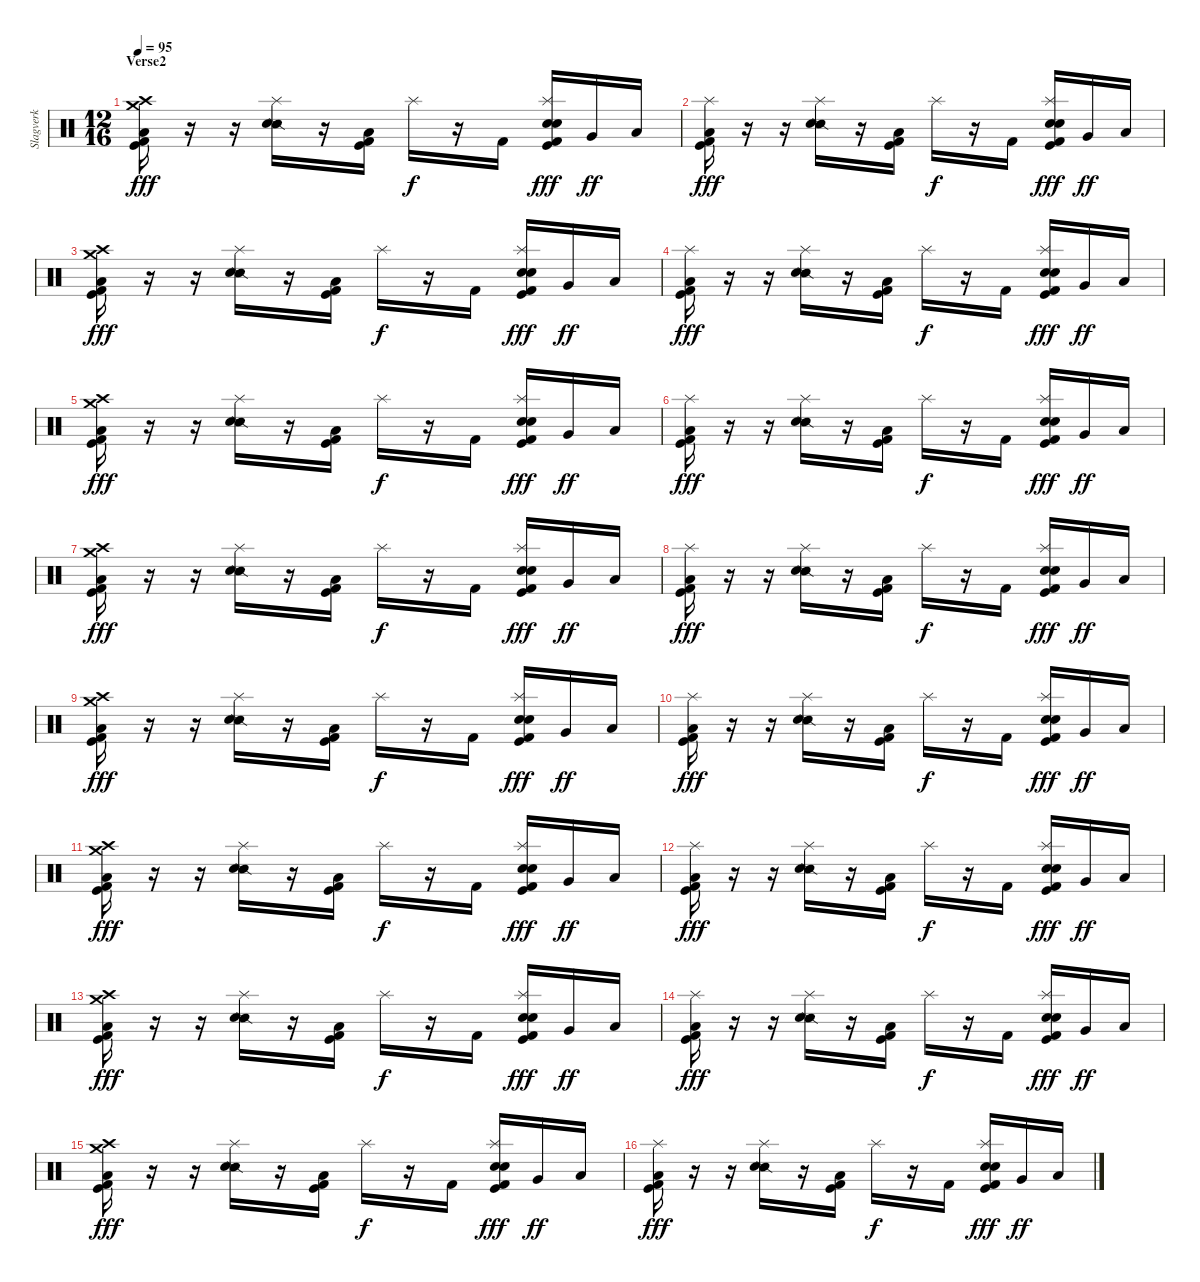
\track ("Slagverk" "Slagverk") {instrument percussion}
\staff {score}
\articulation defaults
\ts (12 16)
\section ("" "Verse2")
\tempo 95
\clef neutral
\ks c
("Crash high (hit)" "Crash medium (hit)" "Low Floor Tom (hit)" "Kick (hit)" "Kick (hit) 2").16{dy fff} r.16 r.16 ("Splash (hit)" "Snare (side stick) 2" "Snare (hit) 2").16 r.16 ("Low Floor Tom (hit)" "Kick (hit)" "Kick (hit) 2").16 "Splash (hit)".16{dy f} r.16 "Kick (hit) 2".16 ("Splash (hit)" "Snare (hit) 2" "Electric Snare (hit)" "Kick (hit)" "Kick (hit) 2").16{dy fff} "Very Low Tom (hit)".16{dy ff} "Low Floor Tom (hit)".16 |
("Splash (hit)" "Low Floor Tom (hit)" "Kick (hit)" "Kick (hit) 2").16{dy fff} r.16 r.16 ("Splash (hit)" "Snare (side stick) 2" "Snare (hit) 2").16 r.16 ("Low Floor Tom (hit)" "Kick (hit)" "Kick (hit) 2").16 "Splash (hit)".16{dy f} r.16 "Kick (hit) 2".16 ("Splash (hit)" "Snare (hit) 2" "Electric Snare (hit)" "Kick (hit)" "Kick (hit) 2").16{dy fff} "Very Low Tom (hit)".16{dy ff} "Low Floor Tom (hit)".16 |
("Crash high (hit)" "Crash medium (hit)" "Low Floor Tom (hit)" "Kick (hit)" "Kick (hit) 2").16{dy fff} r.16 r.16 ("Splash (hit)" "Snare (side stick) 2" "Snare (hit) 2").16 r.16 ("Low Floor Tom (hit)" "Kick (hit)" "Kick (hit) 2").16 "Splash (hit)".16{dy f} r.16 "Kick (hit) 2".16 ("Splash (hit)" "Snare (hit) 2" "Electric Snare (hit)" "Kick (hit)" "Kick (hit) 2").16{dy fff} "Very Low Tom (hit)".16{dy ff} "Low Floor Tom (hit)".16 |
("Splash (hit)" "Low Floor Tom (hit)" "Kick (hit)" "Kick (hit) 2").16{dy fff} r.16 r.16 ("Splash (hit)" "Snare (side stick) 2" "Snare (hit) 2").16 r.16 ("Low Floor Tom (hit)" "Kick (hit)" "Kick (hit) 2").16 "Splash (hit)".16{dy f} r.16 "Kick (hit) 2".16 ("Splash (hit)" "Snare (hit) 2" "Electric Snare (hit)" "Kick (hit)" "Kick (hit) 2").16{dy fff} "Very Low Tom (hit)".16{dy ff} "Low Floor Tom (hit)".16 |
("Crash high (hit)" "Crash medium (hit)" "Low Floor Tom (hit)" "Kick (hit)" "Kick (hit) 2").16{dy fff} r.16 r.16 ("Splash (hit)" "Snare (side stick) 2" "Snare (hit) 2").16 r.16 ("Low Floor Tom (hit)" "Kick (hit)" "Kick (hit) 2").16 "Splash (hit)".16{dy f} r.16 "Kick (hit) 2".16 ("Splash (hit)" "Snare (hit) 2" "Electric Snare (hit)" "Kick (hit)" "Kick (hit) 2").16{dy fff} "Very Low Tom (hit)".16{dy ff} "Low Floor Tom (hit)".16 |
("Splash (hit)" "Low Floor Tom (hit)" "Kick (hit)" "Kick (hit) 2").16{dy fff} r.16 r.16 ("Splash (hit)" "Snare (side stick) 2" "Snare (hit) 2").16 r.16 ("Low Floor Tom (hit)" "Kick (hit)" "Kick (hit) 2").16 "Splash (hit)".16{dy f} r.16 "Kick (hit) 2".16 ("Splash (hit)" "Snare (hit) 2" "Electric Snare (hit)" "Kick (hit)" "Kick (hit) 2").16{dy fff} "Very Low Tom (hit)".16{dy ff} "Low Floor Tom (hit)".16 |
("Crash high (hit)" "Crash medium (hit)" "Low Floor Tom (hit)" "Kick (hit)" "Kick (hit) 2").16{dy fff} r.16 r.16 ("Splash (hit)" "Snare (side stick) 2" "Snare (hit) 2").16 r.16 ("Low Floor Tom (hit)" "Kick (hit)" "Kick (hit) 2").16 "Splash (hit)".16{dy f} r.16 "Kick (hit) 2".16 ("Splash (hit)" "Snare (hit) 2" "Electric Snare (hit)" "Kick (hit)" "Kick (hit) 2").16{dy fff} "Very Low Tom (hit)".16{dy ff} "Low Floor Tom (hit)".16 |
("Splash (hit)" "Low Floor Tom (hit)" "Kick (hit)" "Kick (hit) 2").16{dy fff} r.16 r.16 ("Splash (hit)" "Snare (side stick) 2" "Snare (hit) 2").16 r.16 ("Low Floor Tom (hit)" "Kick (hit)" "Kick (hit) 2").16 "Splash (hit)".16{dy f} r.16 "Kick (hit) 2".16 ("Splash (hit)" "Snare (hit) 2" "Electric Snare (hit)" "Kick (hit)" "Kick (hit) 2").16{dy fff} "Very Low Tom (hit)".16{dy ff} "Low Floor Tom (hit)".16 |
("Crash high (hit)" "Crash medium (hit)" "Low Floor Tom (hit)" "Kick (hit)" "Kick (hit) 2").16{dy fff} r.16 r.16 ("Splash (hit)" "Snare (side stick) 2" "Snare (hit) 2").16 r.16 ("Low Floor Tom (hit)" "Kick (hit)" "Kick (hit) 2").16 "Splash (hit)".16{dy f} r.16 "Kick (hit) 2".16 ("Splash (hit)" "Snare (hit) 2" "Electric Snare (hit)" "Kick (hit)" "Kick (hit) 2").16{dy fff} "Very Low Tom (hit)".16{dy ff} "Low Floor Tom (hit)".16 |
("Splash (hit)" "Low Floor Tom (hit)" "Kick (hit)" "Kick (hit) 2").16{dy fff} r.16 r.16 ("Splash (hit)" "Snare (side stick) 2" "Snare (hit) 2").16 r.16 ("Low Floor Tom (hit)" "Kick (hit)" "Kick (hit) 2").16 "Splash (hit)".16{dy f} r.16 "Kick (hit) 2".16 ("Splash (hit)" "Snare (hit) 2" "Electric Snare (hit)" "Kick (hit)" "Kick (hit) 2").16{dy fff} "Very Low Tom (hit)".16{dy ff} "Low Floor Tom (hit)".16 |
("Crash high (hit)" "Crash medium (hit)" "Low Floor Tom (hit)" "Kick (hit)" "Kick (hit) 2").16{dy fff} r.16 r.16 ("Splash (hit)" "Snare (side stick) 2" "Snare (hit) 2").16 r.16 ("Low Floor Tom (hit)" "Kick (hit)" "Kick (hit) 2").16 "Splash (hit)".16{dy f} r.16 "Kick (hit) 2".16 ("Splash (hit)" "Snare (hit) 2" "Electric Snare (hit)" "Kick (hit)" "Kick (hit) 2").16{dy fff} "Very Low Tom (hit)".16{dy ff} "Low Floor Tom (hit)".16 |
("Splash (hit)" "Low Floor Tom (hit)" "Kick (hit)" "Kick (hit) 2").16{dy fff} r.16 r.16 ("Splash (hit)" "Snare (side stick) 2" "Snare (hit) 2").16 r.16 ("Low Floor Tom (hit)" "Kick (hit)" "Kick (hit) 2").16 "Splash (hit)".16{dy f} r.16 "Kick (hit) 2".16 ("Splash (hit)" "Snare (hit) 2" "Electric Snare (hit)" "Kick (hit)" "Kick (hit) 2").16{dy fff} "Very Low Tom (hit)".16{dy ff} "Low Floor Tom (hit)".16 |
("Crash high (hit)" "Crash medium (hit)" "Low Floor Tom (hit)" "Kick (hit)" "Kick (hit) 2").16{dy fff} r.16 r.16 ("Splash (hit)" "Snare (side stick) 2" "Snare (hit) 2").16 r.16 ("Low Floor Tom (hit)" "Kick (hit)" "Kick (hit) 2").16 "Splash (hit)".16{dy f} r.16 "Kick (hit) 2".16 ("Splash (hit)" "Snare (hit) 2" "Electric Snare (hit)" "Kick (hit)" "Kick (hit) 2").16{dy fff} "Very Low Tom (hit)".16{dy ff} "Low Floor Tom (hit)".16 |
("Splash (hit)" "Low Floor Tom (hit)" "Kick (hit)" "Kick (hit) 2").16{dy fff} r.16 r.16 ("Splash (hit)" "Snare (side stick) 2" "Snare (hit) 2").16 r.16 ("Low Floor Tom (hit)" "Kick (hit)" "Kick (hit) 2").16 "Splash (hit)".16{dy f} r.16 "Kick (hit) 2".16 ("Splash (hit)" "Snare (hit) 2" "Electric Snare (hit)" "Kick (hit)" "Kick (hit) 2").16{dy fff} "Very Low Tom (hit)".16{dy ff} "Low Floor Tom (hit)".16 |
("Crash high (hit)" "Crash medium (hit)" "Low Floor Tom (hit)" "Kick (hit)" "Kick (hit) 2").16{dy fff} r.16 r.16 ("Splash (hit)" "Snare (side stick) 2" "Snare (hit) 2").16 r.16 ("Low Floor Tom (hit)" "Kick (hit)" "Kick (hit) 2").16 "Splash (hit)".16{dy f} r.16 "Kick (hit) 2".16 ("Splash (hit)" "Snare (hit) 2" "Electric Snare (hit)" "Kick (hit)" "Kick (hit) 2").16{dy fff} "Very Low Tom (hit)".16{dy ff} "Low Floor Tom (hit)".16 |
("Splash (hit)" "Low Floor Tom (hit)" "Kick (hit)" "Kick (hit) 2").16{dy fff} r.16 r.16 ("Splash (hit)" "Snare (side stick) 2" "Snare (hit) 2").16 r.16 ("Low Floor Tom (hit)" "Kick (hit)" "Kick (hit) 2").16 "Splash (hit)".16{dy f} r.16 "Kick (hit) 2".16 ("Splash (hit)" "Snare (hit) 2" "Electric Snare (hit)" "Kick (hit)" "Kick (hit) 2").16{dy fff} "Very Low Tom (hit)".16{dy ff} "Low Floor Tom (hit)".16
